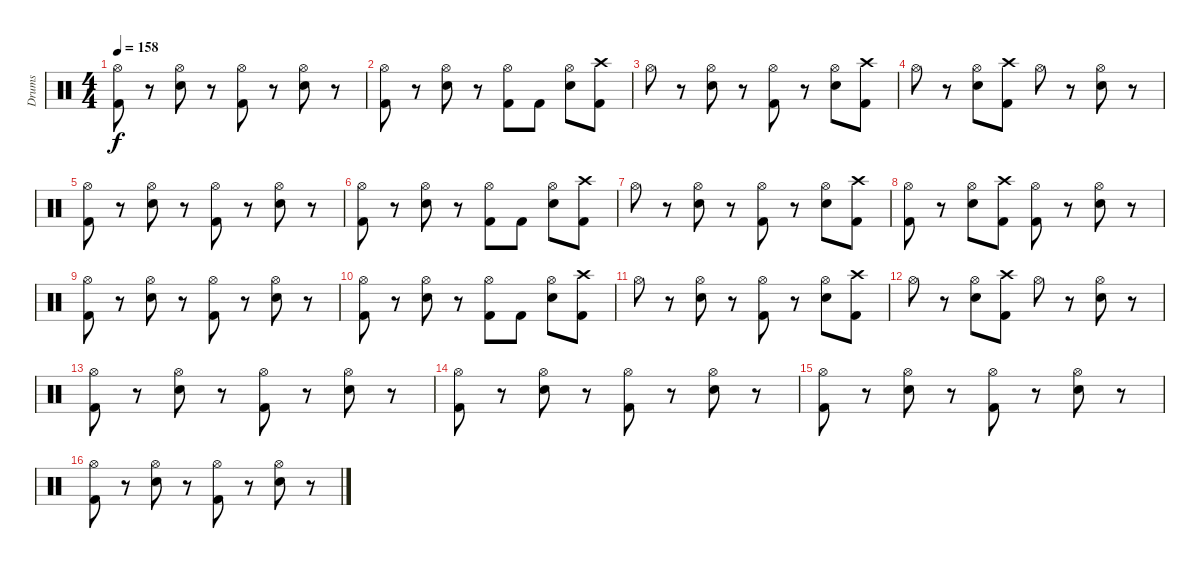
\track ("Drums" "Drums") {instrument percussion}
\staff {score}
\articulation defaults
\ts (4 4)
\tempo 158
\clef neutral
\ks c
("Hi-Hat (open)" "Kick (hit) 2").8{dy f} r.8 ("Hi-Hat (open)" "Snare (hit) 2").8 r.8 ("Hi-Hat (open)" "Kick (hit) 2").8 r.8 ("Hi-Hat (open)" "Snare (hit) 2").8 r.8 |
("Hi-Hat (open)" "Kick (hit) 2").8 r.8 ("Hi-Hat (open)" "Snare (hit) 2").8 r.8 ("Hi-Hat (open)" "Kick (hit) 2").8 "Kick (hit) 2".8 ("Hi-Hat (open)" "Snare (hit) 2").8 ("Crash high (hit)" "Kick (hit) 2").8 |
"Hi-Hat (open)".8 r.8 ("Hi-Hat (open)" "Snare (hit) 2").8 r.8 ("Hi-Hat (open)" "Kick (hit) 2").8 r.8 ("Hi-Hat (open)" "Snare (hit) 2").8 ("Crash high (hit)" "Kick (hit) 2").8 |
"Hi-Hat (open)".8 r.8 ("Hi-Hat (open)" "Snare (hit) 2").8 ("Crash high (hit)" "Kick (hit) 2").8 "Hi-Hat (open)".8 r.8 ("Hi-Hat (open)" "Snare (hit) 2").8 r.8 |
("Hi-Hat (open)" "Kick (hit) 2").8 r.8 ("Hi-Hat (open)" "Snare (hit) 2").8 r.8 ("Hi-Hat (open)" "Kick (hit) 2").8 r.8 ("Hi-Hat (open)" "Snare (hit) 2").8 r.8 |
("Hi-Hat (open)" "Kick (hit) 2").8 r.8 ("Hi-Hat (open)" "Snare (hit) 2").8 r.8 ("Hi-Hat (open)" "Kick (hit) 2").8 "Kick (hit) 2".8 ("Hi-Hat (open)" "Snare (hit) 2").8 ("Crash high (hit)" "Kick (hit) 2").8 |
"Hi-Hat (open)".8 r.8 ("Hi-Hat (open)" "Snare (hit) 2").8 r.8 ("Hi-Hat (open)" "Kick (hit) 2").8 r.8 ("Hi-Hat (open)" "Snare (hit) 2").8 ("Crash high (hit)" "Kick (hit) 2").8 |
("Hi-Hat (open)" "Kick (hit) 2").8 r.8 ("Hi-Hat (open)" "Snare (hit) 2").8 ("Crash high (hit)" "Kick (hit) 2").8 ("Hi-Hat (open)" "Kick (hit) 2").8 r.8 ("Hi-Hat (open)" "Snare (hit) 2").8 r.8 |
("Hi-Hat (open)" "Kick (hit) 2").8 r.8 ("Hi-Hat (open)" "Snare (hit) 2").8 r.8 ("Hi-Hat (open)" "Kick (hit) 2").8 r.8 ("Hi-Hat (open)" "Snare (hit) 2").8 r.8 |
("Hi-Hat (open)" "Kick (hit) 2").8 r.8 ("Hi-Hat (open)" "Snare (hit) 2").8 r.8 ("Hi-Hat (open)" "Kick (hit) 2").8 "Kick (hit) 2".8 ("Hi-Hat (open)" "Snare (hit) 2").8 ("Crash high (hit)" "Kick (hit) 2").8 |
"Hi-Hat (open)".8 r.8 ("Hi-Hat (open)" "Snare (hit) 2").8 r.8 ("Hi-Hat (open)" "Kick (hit) 2").8 r.8 ("Hi-Hat (open)" "Snare (hit) 2").8 ("Crash high (hit)" "Kick (hit) 2").8 |
"Hi-Hat (open)".8 r.8 ("Hi-Hat (open)" "Snare (hit) 2").8 ("Crash high (hit)" "Kick (hit) 2").8 "Hi-Hat (open)".8 r.8 ("Hi-Hat (open)" "Snare (hit) 2").8 r.8 |
("Hi-Hat (open)" "Kick (hit) 2").8 r.8 ("Hi-Hat (open)" "Snare (hit) 2").8 r.8 ("Hi-Hat (open)" "Kick (hit) 2").8 r.8 ("Hi-Hat (open)" "Snare (hit) 2").8 r.8 |
("Hi-Hat (open)" "Kick (hit) 2").8 r.8 ("Hi-Hat (open)" "Snare (hit) 2").8 r.8 ("Hi-Hat (open)" "Kick (hit) 2").8 r.8 ("Hi-Hat (open)" "Snare (hit) 2").8 r.8 |
("Hi-Hat (open)" "Kick (hit) 2").8 r.8 ("Hi-Hat (open)" "Snare (hit) 2").8 r.8 ("Hi-Hat (open)" "Kick (hit) 2").8 r.8 ("Hi-Hat (open)" "Snare (hit) 2").8 r.8 |
("Hi-Hat (open)" "Kick (hit) 2").8 r.8 ("Hi-Hat (open)" "Snare (hit) 2").8 r.8 ("Hi-Hat (open)" "Kick (hit) 2").8 r.8 ("Hi-Hat (open)" "Snare (hit) 2").8 r.8
